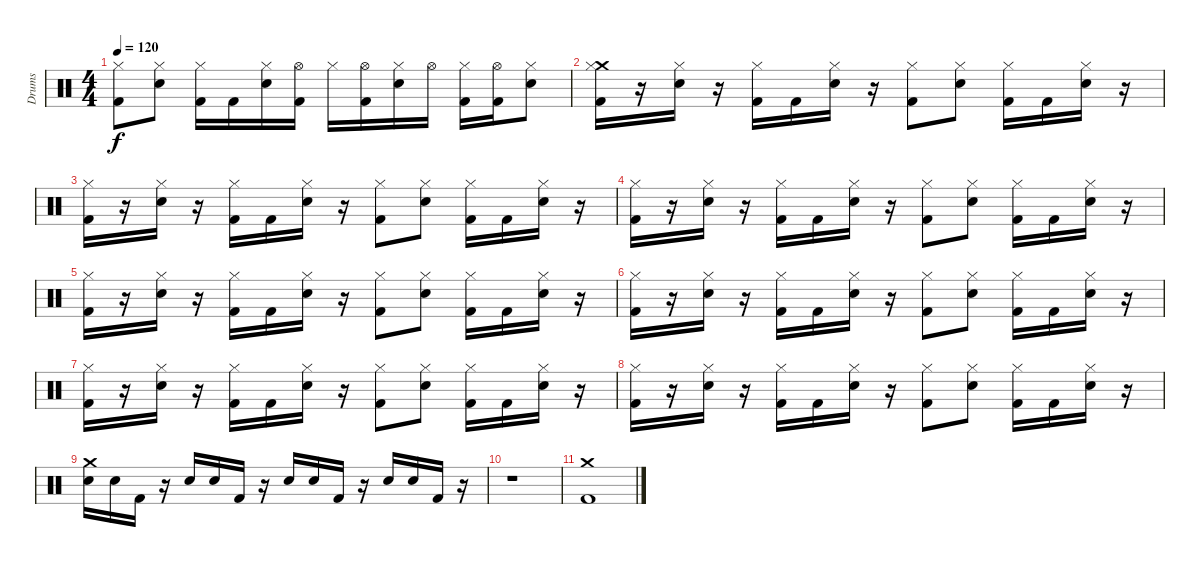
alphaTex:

\track ("Drums" "Drums") {instrument percussion}
\staff {score}
\articulation defaults
\ts (4 4)
\tempo 120
\clef neutral
\ks c
("Hi-Hat (closed)" "Kick (hit) 2").8{dy f} ("Hi-Hat (closed)" "Electric Snare (hit)").8 ("Hi-Hat (closed)" "Kick (hit) 2").16 "Kick (hit) 2".16 ("Hi-Hat (closed)" "Electric Snare (hit)").16 ("Hi-Hat (open)" "Kick (hit) 2").16 "Hi-Hat (closed)".16 ("Hi-Hat (open)" "Kick (hit) 2").16 ("Hi-Hat (closed)" "Electric Snare (hit)").16 "Hi-Hat (open)".16 ("Hi-Hat (closed)" "Kick (hit) 2").16 ("Hi-Hat (open)" "Kick (hit) 2").16 ("Hi-Hat (closed)" "Electric Snare (hit)").8 |
("Crash medium (hit)" "Hi-Hat (closed)" "Kick (hit) 2").16 r.16 ("Hi-Hat (closed)" "Electric Snare (hit)").16 r.16 ("Hi-Hat (closed)" "Kick (hit) 2").16 "Kick (hit) 2".16 ("Hi-Hat (closed)" "Electric Snare (hit)").16 r.16 ("Hi-Hat (closed)" "Kick (hit) 2").8 ("Hi-Hat (closed)" "Electric Snare (hit)").8 ("Hi-Hat (closed)" "Kick (hit) 2").16 "Kick (hit) 2".16 ("Hi-Hat (closed)" "Electric Snare (hit)").16 r.16 |
("Hi-Hat (closed)" "Kick (hit) 2").16 r.16 ("Hi-Hat (closed)" "Electric Snare (hit)").16 r.16 ("Hi-Hat (closed)" "Kick (hit) 2").16 "Kick (hit) 2".16 ("Hi-Hat (closed)" "Electric Snare (hit)").16 r.16 ("Hi-Hat (closed)" "Kick (hit) 2").8 ("Hi-Hat (closed)" "Electric Snare (hit)").8 ("Hi-Hat (closed)" "Kick (hit) 2").16 "Kick (hit) 2".16 ("Hi-Hat (closed)" "Electric Snare (hit)").16 r.16 |
("Hi-Hat (closed)" "Kick (hit) 2").16 r.16 ("Hi-Hat (closed)" "Electric Snare (hit)").16 r.16 ("Hi-Hat (closed)" "Kick (hit) 2").16 "Kick (hit) 2".16 ("Hi-Hat (closed)" "Electric Snare (hit)").16 r.16 ("Hi-Hat (closed)" "Kick (hit) 2").8 ("Hi-Hat (closed)" "Electric Snare (hit)").8 ("Hi-Hat (closed)" "Kick (hit) 2").16 "Kick (hit) 2".16 ("Hi-Hat (closed)" "Electric Snare (hit)").16 r.16 |
("Hi-Hat (closed)" "Kick (hit) 2").16 r.16 ("Hi-Hat (closed)" "Electric Snare (hit)").16 r.16 ("Hi-Hat (closed)" "Kick (hit) 2").16 "Kick (hit) 2".16 ("Hi-Hat (closed)" "Electric Snare (hit)").16 r.16 ("Hi-Hat (closed)" "Kick (hit) 2").8 ("Hi-Hat (closed)" "Electric Snare (hit)").8 ("Hi-Hat (closed)" "Kick (hit) 2").16 "Kick (hit) 2".16 ("Hi-Hat (closed)" "Electric Snare (hit)").16 r.16 |
("Hi-Hat (closed)" "Kick (hit) 2").16 r.16 ("Hi-Hat (closed)" "Electric Snare (hit)").16 r.16 ("Hi-Hat (closed)" "Kick (hit) 2").16 "Kick (hit) 2".16 ("Hi-Hat (closed)" "Electric Snare (hit)").16 r.16 ("Hi-Hat (closed)" "Kick (hit) 2").8 ("Hi-Hat (closed)" "Electric Snare (hit)").8 ("Hi-Hat (closed)" "Kick (hit) 2").16 "Kick (hit) 2".16 ("Hi-Hat (closed)" "Electric Snare (hit)").16 r.16 |
("Hi-Hat (closed)" "Kick (hit) 2").16 r.16 ("Hi-Hat (closed)" "Electric Snare (hit)").16 r.16 ("Hi-Hat (closed)" "Kick (hit) 2").16 "Kick (hit) 2".16 ("Hi-Hat (closed)" "Electric Snare (hit)").16 r.16 ("Hi-Hat (closed)" "Kick (hit) 2").8 ("Hi-Hat (closed)" "Electric Snare (hit)").8 ("Hi-Hat (closed)" "Kick (hit) 2").16 "Kick (hit) 2".16 ("Hi-Hat (closed)" "Electric Snare (hit)").16 r.16 |
("Hi-Hat (closed)" "Kick (hit) 2").16 r.16 ("Hi-Hat (closed)" "Electric Snare (hit)").16 r.16 ("Hi-Hat (closed)" "Kick (hit) 2").16 "Kick (hit) 2".16 ("Hi-Hat (closed)" "Electric Snare (hit)").16 r.16 ("Hi-Hat (closed)" "Kick (hit) 2").8 ("Hi-Hat (closed)" "Electric Snare (hit)").8 ("Hi-Hat (closed)" "Kick (hit) 2").16 "Kick (hit) 2".16 ("Hi-Hat (closed)" "Electric Snare (hit)").16 r.16 |
("Crash medium (hit)" "Electric Snare (hit)").16 "Electric Snare (hit)".16 "Kick (hit) 2".16 r.16 "Electric Snare (hit)".16 "Electric Snare (hit)".16 "Kick (hit) 2".16 r.16 "Electric Snare (hit)".16 "Electric Snare (hit)".16 "Kick (hit) 2".16 r.16 "Electric Snare (hit)".16 "Electric Snare (hit)".16 "Kick (hit) 2".16 r.16 |
r.1 |
("Crash medium (hit)" "Kick (hit) 2").1
